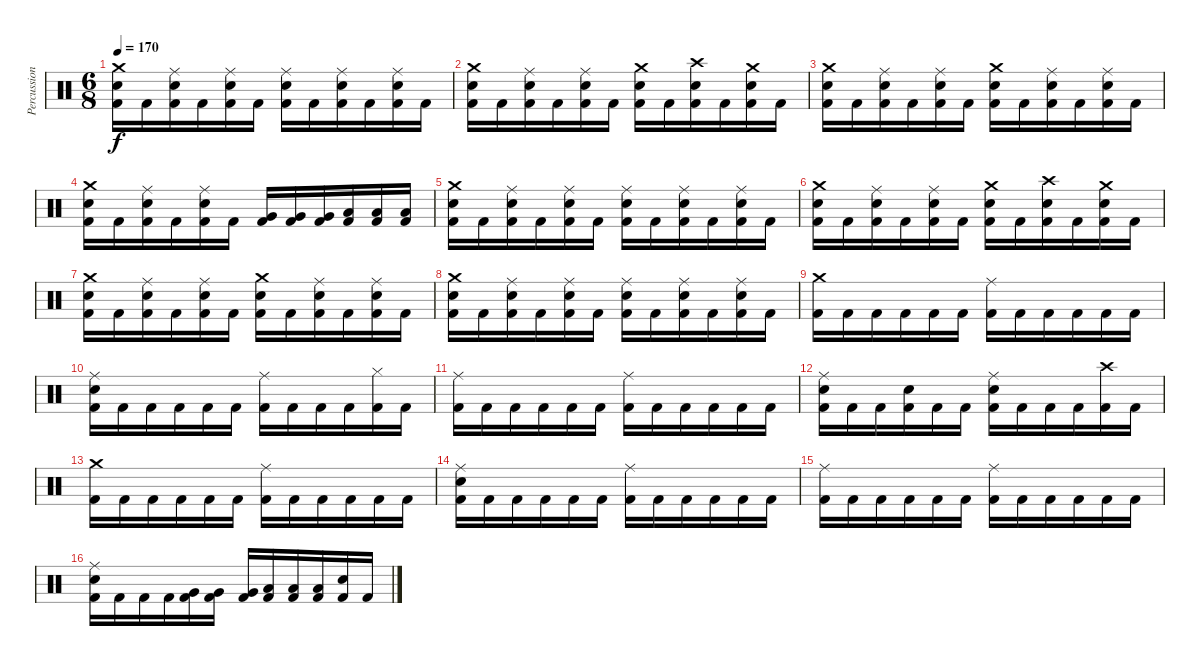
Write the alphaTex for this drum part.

\track ("Percussions" "Percussion") {instrument percussion}
\staff {score}
\articulation defaults
\ts (6 8)
\tempo 170
\clef neutral
\ks c
("Crash medium (hit)" "Electric Snare (hit)" "Kick (hit) 2").16{dy f} "Kick (hit) 2".16 ("Ride (middle)" "Electric Snare (hit)" "Kick (hit) 2").16 "Kick (hit) 2".16 ("Ride (middle)" "Electric Snare (hit)" "Kick (hit) 2").16 "Kick (hit) 2".16 ("Ride (middle)" "Electric Snare (hit)" "Kick (hit) 2").16 "Kick (hit) 2".16 ("Ride (middle)" "Electric Snare (hit)" "Kick (hit) 2").16 "Kick (hit) 2".16 ("Ride (middle)" "Electric Snare (hit)" "Kick (hit) 2").16 "Kick (hit) 2".16 |
("Crash medium (hit)" "Electric Snare (hit)" "Kick (hit) 2").16 "Kick (hit) 2".16 ("Ride (middle)" "Electric Snare (hit)" "Kick (hit) 2").16 "Kick (hit) 2".16 ("Ride (middle)" "Electric Snare (hit)" "Kick (hit) 2").16 "Kick (hit) 2".16 ("Crash medium (hit)" "Electric Snare (hit)" "Kick (hit) 2").16 "Kick (hit) 2".16 ("Crash high (hit)" "Electric Snare (hit)" "Kick (hit) 2").16 "Kick (hit) 2".16 ("Crash medium (hit)" "Electric Snare (hit)" "Kick (hit) 2").16 "Kick (hit) 2".16 |
("Crash medium (hit)" "Electric Snare (hit)" "Kick (hit) 2").16 "Kick (hit) 2".16 ("Ride (middle)" "Electric Snare (hit)" "Kick (hit) 2").16 "Kick (hit) 2".16 ("Ride (middle)" "Electric Snare (hit)" "Kick (hit) 2").16 "Kick (hit) 2".16 ("Crash medium (hit)" "Electric Snare (hit)" "Kick (hit) 2").16 "Kick (hit) 2".16 ("Ride (middle)" "Electric Snare (hit)" "Kick (hit) 2").16 "Kick (hit) 2".16 ("Ride (middle)" "Electric Snare (hit)" "Kick (hit) 2").16 "Kick (hit) 2".16 |
("Crash medium (hit)" "Electric Snare (hit)" "Kick (hit) 2").16 "Kick (hit) 2".16 ("Ride (middle)" "Electric Snare (hit)" "Kick (hit) 2").16 "Kick (hit) 2".16 ("Ride (middle)" "Electric Snare (hit)" "Kick (hit) 2").16 "Kick (hit) 2".16 ("Very Low Tom (hit)" "Kick (hit) 2").16 ("Very Low Tom (hit)" "Kick (hit) 2").16 ("Very Low Tom (hit)" "Kick (hit) 2").16 ("Low Floor Tom (hit)" "Kick (hit) 2").16 ("Low Floor Tom (hit)" "Kick (hit) 2").16 ("Low Floor Tom (hit)" "Kick (hit) 2").16 |
("Crash medium (hit)" "Electric Snare (hit)" "Kick (hit) 2").16 "Kick (hit) 2".16 ("Ride (middle)" "Electric Snare (hit)" "Kick (hit) 2").16 "Kick (hit) 2".16 ("Ride (middle)" "Electric Snare (hit)" "Kick (hit) 2").16 "Kick (hit) 2".16 ("Ride (middle)" "Electric Snare (hit)" "Kick (hit) 2").16 "Kick (hit) 2".16 ("Ride (middle)" "Electric Snare (hit)" "Kick (hit) 2").16 "Kick (hit) 2".16 ("Ride (middle)" "Electric Snare (hit)" "Kick (hit) 2").16 "Kick (hit) 2".16 |
("Crash medium (hit)" "Electric Snare (hit)" "Kick (hit) 2").16 "Kick (hit) 2".16 ("Ride (middle)" "Electric Snare (hit)" "Kick (hit) 2").16 "Kick (hit) 2".16 ("Ride (middle)" "Electric Snare (hit)" "Kick (hit) 2").16 "Kick (hit) 2".16 ("Crash medium (hit)" "Electric Snare (hit)" "Kick (hit) 2").16 "Kick (hit) 2".16 ("Crash high (hit)" "Electric Snare (hit)" "Kick (hit) 2").16 "Kick (hit) 2".16 ("Crash medium (hit)" "Electric Snare (hit)" "Kick (hit) 2").16 "Kick (hit) 2".16 |
("Crash medium (hit)" "Electric Snare (hit)" "Kick (hit) 2").16 "Kick (hit) 2".16 ("Ride (middle)" "Electric Snare (hit)" "Kick (hit) 2").16 "Kick (hit) 2".16 ("Ride (middle)" "Electric Snare (hit)" "Kick (hit) 2").16 "Kick (hit) 2".16 ("Crash medium (hit)" "Electric Snare (hit)" "Kick (hit) 2").16 "Kick (hit) 2".16 ("Ride (middle)" "Electric Snare (hit)" "Kick (hit) 2").16 "Kick (hit) 2".16 ("Ride (middle)" "Electric Snare (hit)" "Kick (hit) 2").16 "Kick (hit) 2".16 |
("Crash medium (hit)" "Electric Snare (hit)" "Kick (hit) 2").16 "Kick (hit) 2".16 ("Ride (middle)" "Electric Snare (hit)" "Kick (hit) 2").16 "Kick (hit) 2".16 ("Ride (middle)" "Electric Snare (hit)" "Kick (hit) 2").16 "Kick (hit) 2".16 ("Ride (middle)" "Electric Snare (hit)" "Kick (hit) 2").16 "Kick (hit) 2".16 ("Ride (middle)" "Electric Snare (hit)" "Kick (hit) 2").16 "Kick (hit) 2".16 ("Ride (middle)" "Electric Snare (hit)" "Kick (hit) 2").16 "Kick (hit) 2".16 |
("Crash medium (hit)" "Kick (hit) 2").16 "Kick (hit) 2".16 "Kick (hit) 2".16 "Kick (hit) 2".16 "Kick (hit) 2".16 "Kick (hit) 2".16 ("Ride (middle)" "Kick (hit) 2").16 "Kick (hit) 2".16 "Kick (hit) 2".16 "Kick (hit) 2".16 "Kick (hit) 2".16 "Kick (hit) 2".16 |
("Ride (middle)" "Electric Snare (hit)" "Kick (hit) 2").16 "Kick (hit) 2".16 "Kick (hit) 2".16 "Kick (hit) 2".16 "Kick (hit) 2".16 "Kick (hit) 2".16 ("Ride (middle)" "Kick (hit) 2").16 "Kick (hit) 2".16 "Kick (hit) 2".16 "Kick (hit) 2".16 ("Hi-Hat (closed)" "Kick (hit) 2").16 "Kick (hit) 2".16 |
("Ride (middle)" "Kick (hit) 2").16 "Kick (hit) 2".16 "Kick (hit) 2".16 "Kick (hit) 2".16 "Kick (hit) 2".16 "Kick (hit) 2".16 ("Ride (middle)" "Kick (hit) 2").16 "Kick (hit) 2".16 "Kick (hit) 2".16 "Kick (hit) 2".16 "Kick (hit) 2".16 "Kick (hit) 2".16 |
("Ride (middle)" "Electric Snare (hit)" "Kick (hit) 2").16 "Kick (hit) 2".16 "Kick (hit) 2".16 ("Electric Snare (hit)" "Kick (hit) 2").16 "Kick (hit) 2".16 "Kick (hit) 2".16 ("Ride (middle)" "Electric Snare (hit)" "Kick (hit) 2").16 "Kick (hit) 2".16 "Kick (hit) 2".16 "Kick (hit) 2".16 ("Crash high (hit)" "Kick (hit) 2").16 "Kick (hit) 2".16 |
("Crash medium (hit)" "Kick (hit) 2").16 "Kick (hit) 2".16 "Kick (hit) 2".16 "Kick (hit) 2".16 "Kick (hit) 2".16 "Kick (hit) 2".16 ("Ride (middle)" "Kick (hit) 2").16 "Kick (hit) 2".16 "Kick (hit) 2".16 "Kick (hit) 2".16 "Kick (hit) 2".16 "Kick (hit) 2".16 |
("Ride (middle)" "Electric Snare (hit)" "Kick (hit) 2").16 "Kick (hit) 2".16 "Kick (hit) 2".16 "Kick (hit) 2".16 "Kick (hit) 2".16 "Kick (hit) 2".16 ("Ride (middle)" "Kick (hit) 2").16 "Kick (hit) 2".16 "Kick (hit) 2".16 "Kick (hit) 2".16 "Kick (hit) 2".16 "Kick (hit) 2".16 |
("Ride (middle)" "Kick (hit) 2").16 "Kick (hit) 2".16 "Kick (hit) 2".16 "Kick (hit) 2".16 "Kick (hit) 2".16 "Kick (hit) 2".16 ("Ride (middle)" "Kick (hit) 2").16 "Kick (hit) 2".16 "Kick (hit) 2".16 "Kick (hit) 2".16 "Kick (hit) 2".16 "Kick (hit) 2".16 |
("Ride (middle)" "Electric Snare (hit)" "Kick (hit) 2").16 "Kick (hit) 2".16 "Kick (hit) 2".16 "Kick (hit) 2".16 ("Very Low Tom (hit)" "Kick (hit) 2").16 ("Very Low Tom (hit)" "Kick (hit) 2").16 ("Very Low Tom (hit)" "Kick (hit) 2").16 ("Low Floor Tom (hit)" "Kick (hit) 2").16 ("Low Floor Tom (hit)" "Kick (hit) 2").16 ("Low Floor Tom (hit)" "Kick (hit) 2").16 ("Electric Snare (hit)" "Kick (hit) 2").16 "Kick (hit) 2".16
